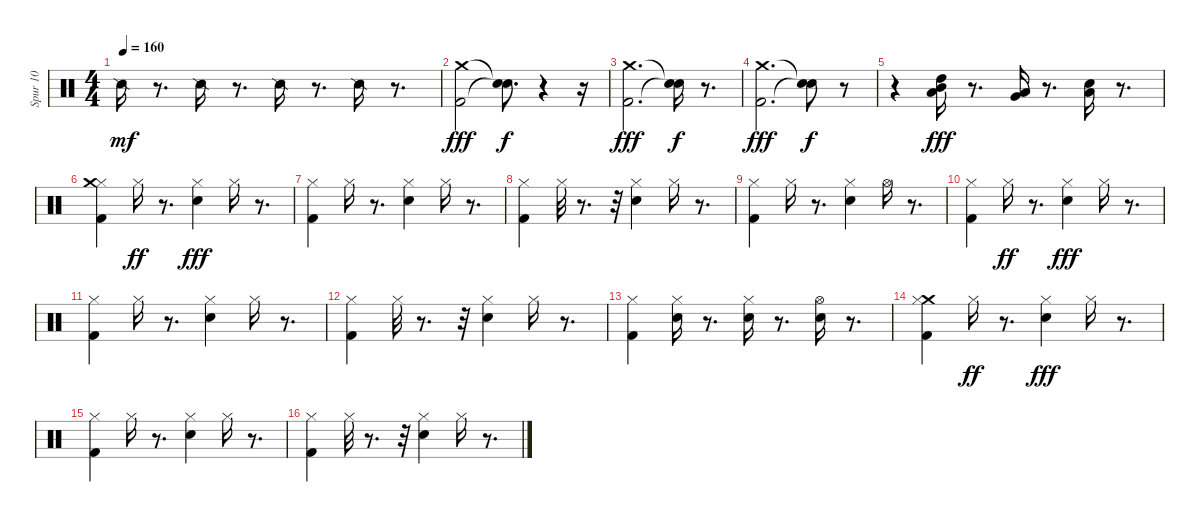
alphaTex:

\track ("Spur 10" "Spur 10") {instrument percussion}
\staff {score}
\articulation defaults
\ts (4 4)
\tempo 160
\clef neutral
\ks c "Snare (side stick) 2".16{dy mf}
r.8{d} "Snare (side stick) 2".16 r.8{d} "Snare (side stick) 2".16 r.8{d} "Snare (side stick) 2".16 r.8{d} |
("Kick (hit) 2" "Crash medium (hit)").2{dy fff} ("Snare (hit)"{t} "Snare (hit)"{t}).8{d dy f} r.4 r.16 |
("Kick (hit) 2" "Crash medium (hit)").2{d dy fff} ("Snare (hit)"{t} "Snare (hit)"{t}).16{dy f} r.8{d} |
("Kick (hit) 2" "Crash medium (hit)").2{d dy fff} ("Snare (hit)"{t} "Snare (hit)"{t}).8{dy f} r.8 |
r.4 ("Mid Tom (hit)" "Low Tom (hit)" "High Tom (hit)").16{dy fff} r.8{d} ("Very Low Tom (hit)" "Low Floor Tom (hit)").16 r.8{d} ("Electric Snare (hit)" "Low Floor Tom (hit)").16 r.8{d} |
("Kick (hit) 2" "Hi-Hat (closed)" "Crash medium (hit)").4 "Hi-Hat (closed)".16{dy ff} r.8{d} ("Snare (hit) 2" "Hi-Hat (closed)").4{dy fff} "Hi-Hat (closed)".16 r.8{d} |
("Kick (hit) 2" "Hi-Hat (closed)").4 "Hi-Hat (closed)".16 r.8{d} ("Snare (hit) 2" "Hi-Hat (closed)").4 "Hi-Hat (closed)".16 r.8{d} |
("Kick (hit) 2" "Hi-Hat (closed)").4 "Hi-Hat (closed)".32 r.8{d} r.32 ("Snare (hit) 2" "Hi-Hat (closed)").4 "Hi-Hat (closed)".16 r.8{d} |
("Kick (hit) 2" "Hi-Hat (closed)").4 "Hi-Hat (closed)".16 r.8{d} ("Snare (hit) 2" "Hi-Hat (closed)").4 "Hi-Hat (open)".16 r.8{d} |
("Kick (hit) 2" "Hi-Hat (closed)").4 "Hi-Hat (closed)".16{dy ff} r.8{d} ("Snare (hit) 2" "Hi-Hat (closed)").4{dy fff} "Hi-Hat (closed)".16 r.8{d} |
("Kick (hit) 2" "Hi-Hat (closed)").4 "Hi-Hat (closed)".16 r.8{d} ("Snare (hit) 2" "Hi-Hat (closed)").4 "Hi-Hat (closed)".16 r.8{d} |
("Kick (hit) 2" "Hi-Hat (closed)").4 "Hi-Hat (closed)".32 r.8{d} r.32 ("Snare (hit) 2" "Hi-Hat (closed)").4 "Hi-Hat (closed)".16 r.8{d} |
("Kick (hit) 2" "Hi-Hat (closed)").4 ("Hi-Hat (closed)" "Snare (hit) 2").16 r.8{d} ("Hi-Hat (closed)" "Snare (hit) 2").16 r.8{d} ("Hi-Hat (open)" "Snare (hit) 2").16 r.8{d} |
("Crash medium (hit)" "Kick (hit) 2" "Hi-Hat (closed)").4 "Hi-Hat (closed)".16{dy ff} r.8{d} ("Snare (hit) 2" "Hi-Hat (closed)").4{dy fff} "Hi-Hat (closed)".16 r.8{d} |
("Kick (hit) 2" "Hi-Hat (closed)").4 "Hi-Hat (closed)".16 r.8{d} ("Snare (hit) 2" "Hi-Hat (closed)").4 "Hi-Hat (closed)".16 r.8{d} |
("Kick (hit) 2" "Hi-Hat (closed)").4 "Hi-Hat (closed)".32 r.8{d} r.32 ("Snare (hit) 2" "Hi-Hat (closed)").4 "Hi-Hat (closed)".16 r.8{d}
